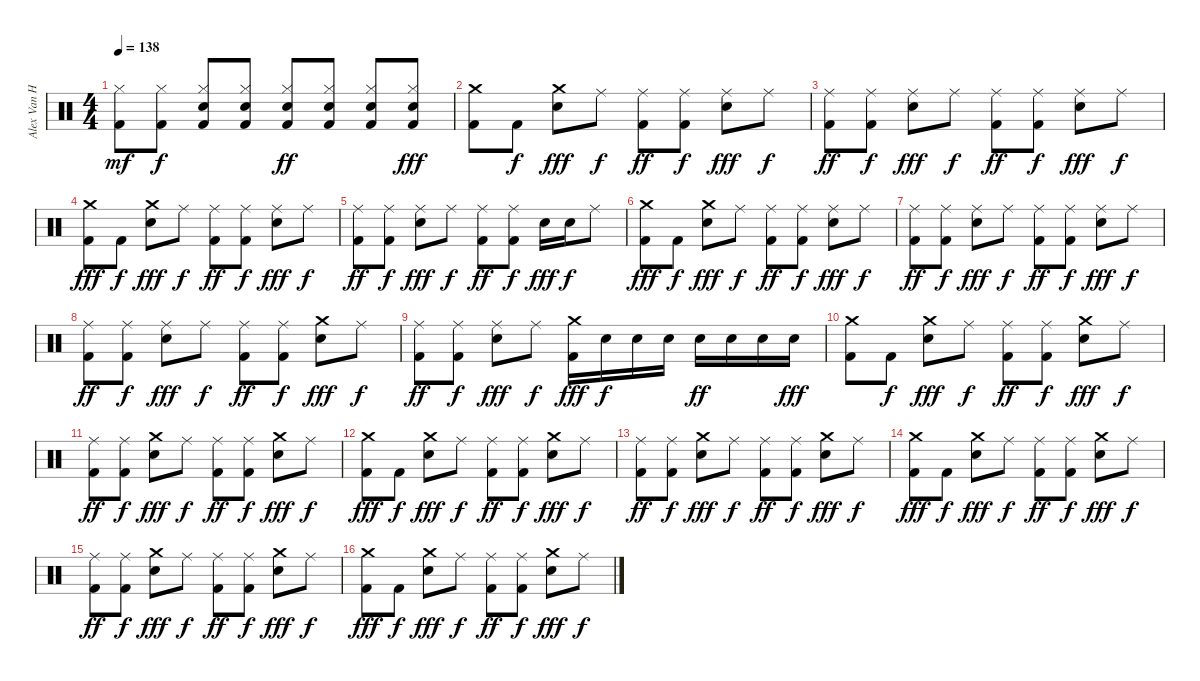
\track ("Alex Van Halen " "Alex Van H") {instrument percussion}
\staff {score}
\articulation defaults
\ts (4 4)
\tempo 138
\clef neutral
\ks c
("Kick (hit) 2" "Hi-Hat (closed)").8{dy mf} ("Kick (hit) 2" "Hi-Hat (closed)").8{dy f} ("Snare (hit) 2" "Kick (hit) 2" "Hi-Hat (closed)").8 ("Snare (hit) 2" "Kick (hit) 2" "Hi-Hat (closed)").8 ("Snare (hit) 2" "Kick (hit) 2" "Hi-Hat (closed)").8{dy ff} ("Snare (hit) 2" "Kick (hit) 2" "Hi-Hat (closed)").8 ("Snare (hit) 2" "Kick (hit) 2" "Hi-Hat (closed)").8 ("Snare (hit) 2" "Kick (hit) 2" "Hi-Hat (closed)").8{dy fff} |
("Kick (hit) 2" "Crash medium (hit)").8 "Kick (hit) 2".8{dy f} ("Snare (hit) 2" "Crash medium (hit)").8{dy fff} "Ride (middle)".8{dy f} ("Kick (hit) 2" "Ride (middle)").8{dy ff} ("Kick (hit) 2" "Ride (middle)").8{dy f} ("Snare (hit) 2" "Ride (middle)").8{dy fff} "Ride (middle)".8{dy f} |
("Kick (hit) 2" "Ride (middle)").8{dy ff} ("Kick (hit) 2" "Ride (middle)").8{dy f} ("Snare (hit) 2" "Ride (middle)").8{dy fff} "Ride (middle)".8{dy f} ("Kick (hit) 2" "Ride (middle)").8{dy ff} ("Kick (hit) 2" "Ride (middle)").8{dy f} ("Snare (hit) 2" "Ride (middle)").8{dy fff} "Ride (middle)".8{dy f} |
("Kick (hit) 2" "Crash medium (hit)").8{dy fff} "Kick (hit) 2".8{dy f} ("Snare (hit) 2" "Crash medium (hit)").8{dy fff} "Ride (middle)".8{dy f} ("Kick (hit) 2" "Ride (middle)").8{dy ff} ("Kick (hit) 2" "Ride (middle)").8{dy f} ("Snare (hit) 2" "Ride (middle)").8{dy fff} "Ride (middle)".8{dy f} |
("Kick (hit) 2" "Ride (middle)").8{dy ff} ("Kick (hit) 2" "Ride (middle)").8{dy f} ("Snare (hit) 2" "Ride (middle)").8{dy fff} "Ride (middle)".8{dy f} ("Kick (hit) 2" "Ride (middle)").8{dy ff} ("Kick (hit) 2" "Ride (middle)").8{dy f} "Snare (hit) 2".16{dy fff} "Snare (hit) 2".16{dy f} "Ride (middle)".8 |
("Kick (hit) 2" "Crash medium (hit)").8{dy fff} "Kick (hit) 2".8{dy f} ("Snare (hit) 2" "Crash medium (hit)").8{dy fff} "Ride (middle)".8{dy f} ("Kick (hit) 2" "Ride (middle)").8{dy ff} ("Kick (hit) 2" "Ride (middle)").8{dy f} ("Snare (hit) 2" "Ride (middle)").8{dy fff} "Ride (middle)".8{dy f} |
("Kick (hit) 2" "Ride (middle)").8{dy ff} ("Kick (hit) 2" "Ride (middle)").8{dy f} ("Snare (hit) 2" "Ride (middle)").8{dy fff} "Ride (middle)".8{dy f} ("Kick (hit) 2" "Ride (middle)").8{dy ff} ("Kick (hit) 2" "Ride (middle)").8{dy f} ("Snare (hit) 2" "Ride (middle)").8{dy fff} "Ride (middle)".8{dy f} |
("Kick (hit) 2" "Ride (middle)").8{dy ff} ("Kick (hit) 2" "Ride (middle)").8{dy f} ("Snare (hit) 2" "Ride (middle)").8{dy fff} "Ride (middle)".8{dy f} ("Kick (hit) 2" "Ride (middle)").8{dy ff} ("Ride (middle)" "Kick (hit) 2").8{dy f} ("Crash medium (hit)" "Snare (hit) 2").8{dy fff} "Ride (middle)".8{dy f} |
("Kick (hit) 2" "Ride (middle)").8{dy ff} ("Kick (hit) 2" "Ride (middle)").8{dy f} ("Snare (hit) 2" "Ride (middle)").8{dy fff} "Ride (middle)".8{dy f} ("Kick (hit) 2" "Crash medium (hit)").16{dy fff} "Snare (hit) 2".16{dy f} "Snare (hit) 2".16 "Snare (hit) 2".16 "Snare (hit) 2".16{dy ff} "Snare (hit) 2".16 "Snare (hit) 2".16 "Snare (hit) 2".16{dy fff} |
("Kick (hit) 2" "Crash medium (hit)").8 "Kick (hit) 2".8{dy f} ("Snare (hit) 2" "Crash medium (hit)").8{dy fff} "Ride (middle)".8{dy f} ("Kick (hit) 2" "Ride (middle)").8{dy ff} ("Kick (hit) 2" "Ride (middle)").8{dy f} ("Snare (hit) 2" "Crash medium (hit)").8{dy fff} "Ride (middle)".8{dy f} |
("Kick (hit) 2" "Ride (middle)").8{dy ff} ("Kick (hit) 2" "Ride (middle)").8{dy f} ("Snare (hit) 2" "Crash medium (hit)").8{dy fff} "Ride (middle)".8{dy f} ("Kick (hit) 2" "Ride (middle)").8{dy ff} ("Kick (hit) 2" "Ride (middle)").8{dy f} ("Snare (hit) 2" "Crash medium (hit)").8{dy fff} "Ride (middle)".8{dy f} |
("Kick (hit) 2" "Crash medium (hit)").8{dy fff} "Kick (hit) 2".8{dy f} ("Snare (hit) 2" "Crash medium (hit)").8{dy fff} "Ride (middle)".8{dy f} ("Kick (hit) 2" "Ride (middle)").8{dy ff} ("Kick (hit) 2" "Ride (middle)").8{dy f} ("Snare (hit) 2" "Crash medium (hit)").8{dy fff} "Ride (middle)".8{dy f} |
("Kick (hit) 2" "Ride (middle)").8{dy ff} ("Kick (hit) 2" "Ride (middle)").8{dy f} ("Snare (hit) 2" "Crash medium (hit)").8{dy fff} "Ride (middle)".8{dy f} ("Kick (hit) 2" "Ride (middle)").8{dy ff} ("Kick (hit) 2" "Ride (middle)").8{dy f} ("Snare (hit) 2" "Crash medium (hit)").8{dy fff} "Ride (middle)".8{dy f} |
("Kick (hit) 2" "Crash medium (hit)").8{dy fff} "Kick (hit) 2".8{dy f} ("Snare (hit) 2" "Crash medium (hit)").8{dy fff} "Ride (middle)".8{dy f} ("Kick (hit) 2" "Ride (middle)").8{dy ff} ("Kick (hit) 2" "Ride (middle)").8{dy f} ("Snare (hit) 2" "Crash medium (hit)").8{dy fff} "Ride (middle)".8{dy f} |
("Kick (hit) 2" "Ride (middle)").8{dy ff} ("Kick (hit) 2" "Ride (middle)").8{dy f} ("Snare (hit) 2" "Crash medium (hit)").8{dy fff} "Ride (middle)".8{dy f} ("Kick (hit) 2" "Ride (middle)").8{dy ff} ("Kick (hit) 2" "Ride (middle)").8{dy f} ("Snare (hit) 2" "Crash medium (hit)").8{dy fff} "Ride (middle)".8{dy f} |
("Kick (hit) 2" "Crash medium (hit)").8{dy fff} "Kick (hit) 2".8{dy f} ("Snare (hit) 2" "Crash medium (hit)").8{dy fff} "Ride (middle)".8{dy f} ("Kick (hit) 2" "Ride (middle)").8{dy ff} ("Kick (hit) 2" "Ride (middle)").8{dy f} ("Snare (hit) 2" "Crash medium (hit)").8{dy fff} "Ride (middle)".8{dy f}
